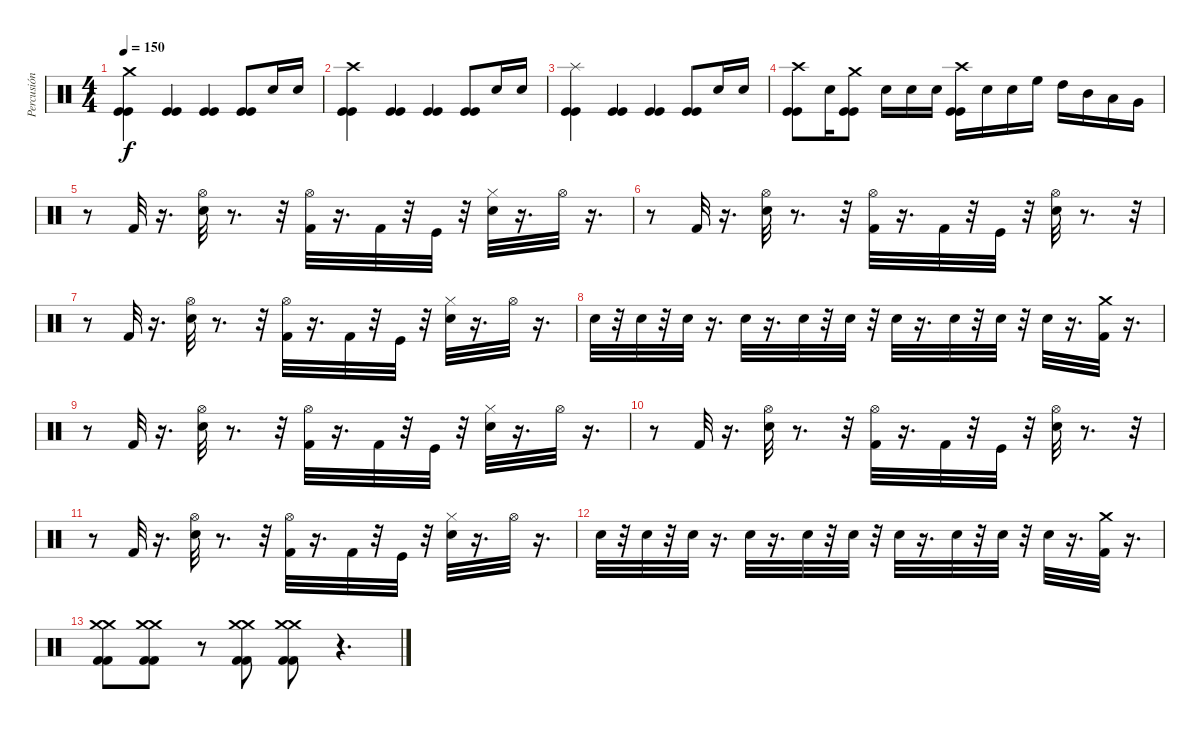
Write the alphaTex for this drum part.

\track ("Percusión" "Percusión") {instrument percussion}
\staff {score}
\articulation defaults
\ts (4 4)
\tempo 150
\clef neutral
\ks c
("Kick (hit)" "Kick (hit)" "Crash medium (hit)").4{dy f} ("Kick (hit)" "Kick (hit)").4 ("Kick (hit)" "Kick (hit)").4 ("Kick (hit)" "Kick (hit)").8 "Snare (hit) 2".16 "Snare (hit) 2".16 |
("Kick (hit)" "Kick (hit)" "Crash high (hit)").4 ("Kick (hit)" "Kick (hit)").4 ("Kick (hit)" "Kick (hit)").4 ("Kick (hit)" "Kick (hit)").8 "Snare (hit) 2".16 "Snare (hit) 2".16 |
("Kick (hit)" "Kick (hit)" "Splash (hit)").4 ("Kick (hit)" "Kick (hit)").4 ("Kick (hit)" "Kick (hit)").4 ("Kick (hit)" "Kick (hit)").8 "Snare (hit) 2".16 "Snare (hit) 2".16 |
("Kick (hit)" "Kick (hit)" "Crash high (hit)").8 "Snare (hit) 2".16 ("Kick (hit)" "Kick (hit)" "Crash medium (hit)").8 "Snare (hit) 2".16 "Snare (hit) 2".16 "Snare (hit) 2".16 ("Kick (hit)" "Kick (hit)" "Crash high (hit)").16 "Snare (hit) 2".16 "Snare (hit) 2".16 "High Floor Tom (hit)".16 "High Tom (hit)".16 "Mid Tom (hit)".16 "Low Tom (hit)".16 "Very Low Tom (hit)".16 |
r.8 "Kick (hit) 2".32 r.16{d} ("Snare (hit) 2" "Hi-Hat (open)").32 r.8{d} r.32 ("Kick (hit) 2" "Hi-Hat (open)").32 r.16{d} "Kick (hit) 2".32 r.32 "Kick (hit)".32 r.32 ("Snare (hit) 2" "Hi-Hat (closed)").32 r.16{d} "Hi-Hat (open)".32 r.16{d} |
r.8 "Kick (hit) 2".32 r.16{d} ("Snare (hit) 2" "Hi-Hat (open)").32 r.8{d} r.32 ("Kick (hit) 2" "Hi-Hat (open)").32 r.16{d} "Kick (hit) 2".32 r.32 "Kick (hit)".32 r.32 ("Snare (hit) 2" "Hi-Hat (open)").32 r.8{d} r.32 |
r.8 "Kick (hit) 2".32 r.16{d} ("Snare (hit) 2" "Hi-Hat (open)").32 r.8{d} r.32 ("Kick (hit) 2" "Hi-Hat (open)").32 r.16{d} "Kick (hit) 2".32 r.32 "Kick (hit)".32 r.32 ("Snare (hit) 2" "Hi-Hat (closed)").32 r.16{d} "Hi-Hat (open)".32 r.16{d} |
"Snare (hit) 2".32 r.32 "Snare (hit) 2".32 r.32 "Snare (hit) 2".32 r.16{d} "Snare (hit) 2".32 r.16{d} "Snare (hit) 2".32 r.32 "Snare (hit) 2".32 r.32 "Snare (hit) 2".32 r.16{d} "Snare (hit) 2".32 r.32 "Snare (hit) 2".32 r.32 "Snare (hit) 2".32 r.16{d} ("Crash medium (hit)" "Kick (hit) 2").32 r.16{d} |
r.8 "Kick (hit) 2".32 r.16{d} ("Snare (hit) 2" "Hi-Hat (open)").32 r.8{d} r.32 ("Kick (hit) 2" "Hi-Hat (open)").32 r.16{d} "Kick (hit) 2".32 r.32 "Kick (hit)".32 r.32 ("Snare (hit) 2" "Hi-Hat (closed)").32 r.16{d} "Hi-Hat (open)".32 r.16{d} |
r.8 "Kick (hit) 2".32 r.16{d} ("Snare (hit) 2" "Hi-Hat (open)").32 r.8{d} r.32 ("Kick (hit) 2" "Hi-Hat (open)").32 r.16{d} "Kick (hit) 2".32 r.32 "Kick (hit)".32 r.32 ("Snare (hit) 2" "Hi-Hat (open)").32 r.8{d} r.32 |
r.8 "Kick (hit) 2".32 r.16{d} ("Snare (hit) 2" "Hi-Hat (open)").32 r.8{d} r.32 ("Kick (hit) 2" "Hi-Hat (open)").32 r.16{d} "Kick (hit) 2".32 r.32 "Kick (hit)".32 r.32 ("Snare (hit) 2" "Hi-Hat (closed)").32 r.16{d} "Hi-Hat (open)".32 r.16{d} |
"Snare (hit) 2".32 r.32 "Snare (hit) 2".32 r.32 "Snare (hit) 2".32 r.16{d} "Snare (hit) 2".32 r.16{d} "Snare (hit) 2".32 r.32 "Snare (hit) 2".32 r.32 "Snare (hit) 2".32 r.16{d} "Snare (hit) 2".32 r.32 "Snare (hit) 2".32 r.32 "Snare (hit) 2".32 r.16{d} ("Crash medium (hit)" "Kick (hit) 2").32 r.16{d} |
("Crash medium (hit)" "Crash medium (hit)" "Kick (hit) 2" "Kick (hit) 2").8 ("Crash medium (hit)" "Crash medium (hit)" "Kick (hit) 2" "Kick (hit) 2").8 r.8 ("Crash medium (hit)" "Crash medium (hit)" "Kick (hit) 2" "Kick (hit) 2").8 ("Crash medium (hit)" "Crash medium (hit)" "Kick (hit) 2" "Kick (hit) 2").8 r.4{d}
